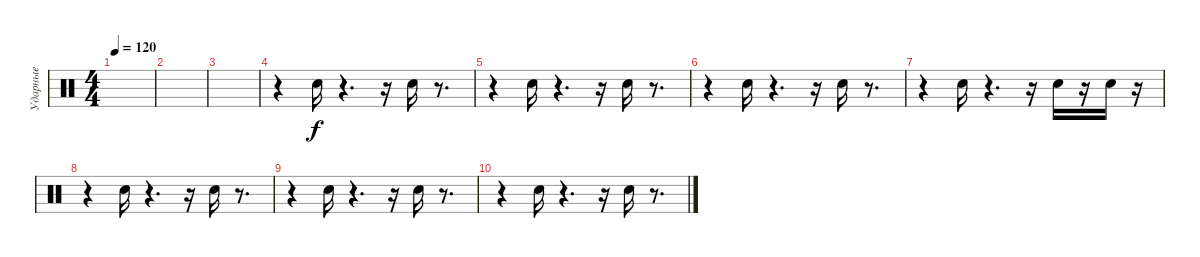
\track ("Ударные" "Ударные") {instrument percussion}
\staff {score}
\articulation defaults
\ts (4 4)
\tempo 120
\clef neutral
\ks c
|
|
|
r.4 "Snare (hit) 2".16 r.4{d} r.16 "Snare (hit) 2".16 r.8{d} |
r.4 "Snare (hit) 2".16 r.4{d} r.16 "Snare (hit) 2".16 r.8{d} |
r.4 "Snare (hit) 2".16 r.4{d} r.16 "Snare (hit) 2".16 r.8{d} |
r.4 "Snare (hit) 2".16 r.4{d} r.16 "Snare (hit) 2".16 r.16 "Snare (hit) 2".16 r.16 |
r.4 "Snare (hit) 2".16 r.4{d} r.16 "Snare (hit) 2".16 r.8{d} |
r.4 "Snare (hit) 2".16 r.4{d} r.16 "Snare (hit) 2".16 r.8{d} |
r.4 "Snare (hit) 2".16 r.4{d} r.16 "Snare (hit) 2".16 r.8{d}
